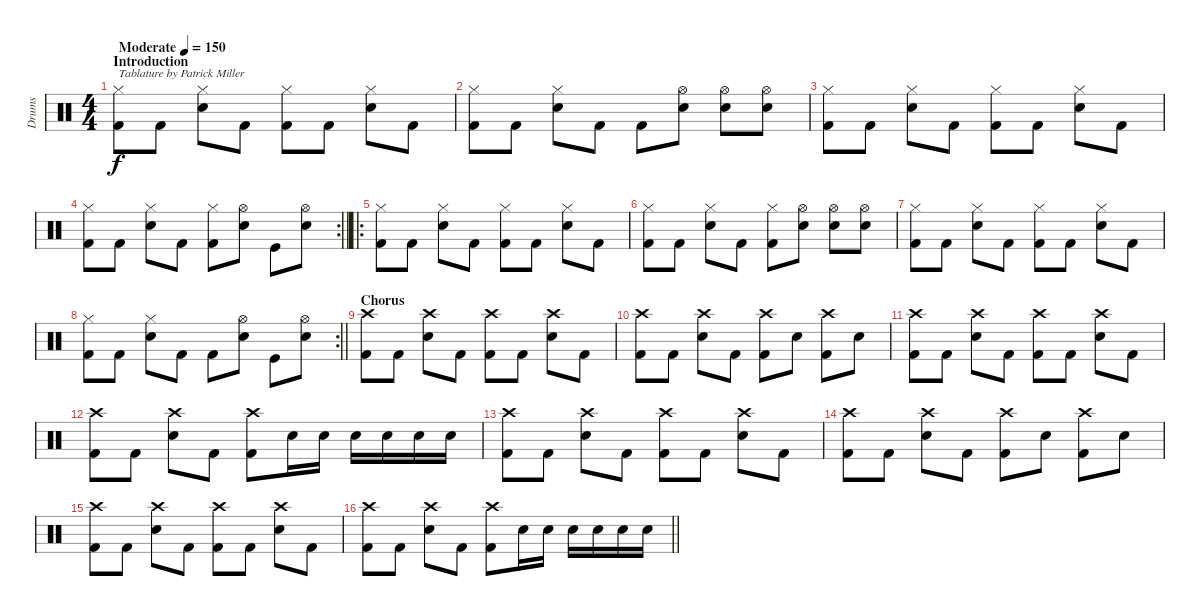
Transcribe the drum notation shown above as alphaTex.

\track ("Drums" "Drums") {instrument percussion}
\staff {score}
\articulation defaults
\ts (4 4)
\section ("" "Introduction")
\tempo (150 "Moderate")
\clef neutral
\ks c
("Kick (hit) 2" "Hi-Hat (closed)").8{txt "Tablature by Patrick Miller" dy f} "Kick (hit) 2".8 ("Snare (hit) 2" "Hi-Hat (closed)").8 "Kick (hit) 2".8 ("Kick (hit) 2" "Hi-Hat (closed)").8 "Kick (hit) 2".8 ("Snare (hit) 2" "Hi-Hat (closed)").8 "Kick (hit) 2".8 |
("Kick (hit) 2" "Hi-Hat (closed)").8 "Kick (hit) 2".8 ("Snare (hit) 2" "Hi-Hat (closed)").8 "Kick (hit) 2".8 "Kick (hit) 2".8 ("Hi-Hat (open)" "Snare (hit) 2").8 ("Hi-Hat (open)" "Snare (hit) 2").8 ("Hi-Hat (open)" "Snare (hit) 2").8 |
("Kick (hit) 2" "Hi-Hat (closed)").8 "Kick (hit) 2".8 ("Snare (hit) 2" "Hi-Hat (closed)").8 "Kick (hit) 2".8 ("Kick (hit) 2" "Hi-Hat (closed)").8 "Kick (hit) 2".8 ("Snare (hit) 2" "Hi-Hat (closed)").8 "Kick (hit) 2".8 |
\rc 2
\barLineRight lightlight
("Kick (hit) 2" "Hi-Hat (closed)").8 "Kick (hit) 2".8 ("Snare (hit) 2" "Hi-Hat (closed)").8 "Kick (hit) 2".8 ("Kick (hit) 2" "Hi-Hat (closed)").8 ("Hi-Hat (open)" "Snare (hit) 2").8 "Kick (hit)".8 ("Hi-Hat (open)" "Snare (hit) 2").8 |
\ro
\section ("" "")
("Kick (hit) 2" "Hi-Hat (closed)").8 "Kick (hit) 2".8 ("Snare (hit) 2" "Hi-Hat (closed)").8 "Kick (hit) 2".8 ("Kick (hit) 2" "Hi-Hat (closed)").8 "Kick (hit) 2".8 ("Snare (hit) 2" "Hi-Hat (closed)").8 "Kick (hit) 2".8 |
("Kick (hit) 2" "Hi-Hat (closed)").8 "Kick (hit) 2".8 ("Snare (hit) 2" "Hi-Hat (closed)").8 "Kick (hit) 2".8 ("Kick (hit) 2" "Hi-Hat (closed)").8 ("Hi-Hat (open)" "Snare (hit) 2").8 ("Hi-Hat (open)" "Snare (hit) 2").8 ("Hi-Hat (open)" "Snare (hit) 2").8 |
("Kick (hit) 2" "Hi-Hat (closed)").8 "Kick (hit) 2".8 ("Snare (hit) 2" "Hi-Hat (closed)").8 "Kick (hit) 2".8 ("Kick (hit) 2" "Hi-Hat (closed)").8 "Kick (hit) 2".8 ("Snare (hit) 2" "Hi-Hat (closed)").8 "Kick (hit) 2".8 |
\rc 2
\barLineRight lightlight
("Kick (hit) 2" "Hi-Hat (closed)").8 "Kick (hit) 2".8 ("Snare (hit) 2" "Hi-Hat (closed)").8 "Kick (hit) 2".8 "Kick (hit) 2".8 ("Hi-Hat (open)" "Snare (hit) 2").8 "Kick (hit)".8 ("Hi-Hat (open)" "Snare (hit) 2").8 |
\section ("" "Chorus")
("Kick (hit) 2" "Crash high (hit)").8 "Kick (hit) 2".8 ("Snare (hit) 2" "Crash high (hit)").8 "Kick (hit) 2".8 ("Kick (hit) 2" "Crash high (hit)").8 "Kick (hit) 2".8 ("Snare (hit) 2" "Crash high (hit)").8 "Kick (hit) 2".8 |
("Kick (hit) 2" "Crash high (hit)").8 "Kick (hit) 2".8 ("Snare (hit) 2" "Crash high (hit)").8 "Kick (hit) 2".8 ("Kick (hit) 2" "Crash high (hit)").8 "Snare (hit) 2".8 ("Kick (hit) 2" "Crash high (hit)").8 "Snare (hit) 2".8 |
("Kick (hit) 2" "Crash high (hit)").8 "Kick (hit) 2".8 ("Snare (hit) 2" "Crash high (hit)").8 "Kick (hit) 2".8 ("Kick (hit) 2" "Crash high (hit)").8 "Kick (hit) 2".8 ("Snare (hit) 2" "Crash high (hit)").8 "Kick (hit) 2".8 |
("Kick (hit) 2" "Crash high (hit)").8 "Kick (hit) 2".8 ("Snare (hit) 2" "Crash high (hit)").8 "Kick (hit) 2".8 ("Kick (hit) 2" "Crash high (hit)").8 "Snare (hit) 2".16 "Snare (hit) 2".16 "Snare (hit) 2".16 "Snare (hit) 2".16 "Snare (hit) 2".16 "Snare (hit) 2".16 |
("Kick (hit) 2" "Crash high (hit)").8 "Kick (hit) 2".8 ("Snare (hit) 2" "Crash high (hit)").8 "Kick (hit) 2".8 ("Kick (hit) 2" "Crash high (hit)").8 "Kick (hit) 2".8 ("Snare (hit) 2" "Crash high (hit)").8 "Kick (hit) 2".8 |
("Kick (hit) 2" "Crash high (hit)").8 "Kick (hit) 2".8 ("Snare (hit) 2" "Crash high (hit)").8 "Kick (hit) 2".8 ("Kick (hit) 2" "Crash high (hit)").8 "Snare (hit) 2".8 ("Kick (hit) 2" "Crash high (hit)").8 "Snare (hit) 2".8 |
("Kick (hit) 2" "Crash high (hit)").8 "Kick (hit) 2".8 ("Snare (hit) 2" "Crash high (hit)").8 "Kick (hit) 2".8 ("Kick (hit) 2" "Crash high (hit)").8 "Kick (hit) 2".8 ("Snare (hit) 2" "Crash high (hit)").8 "Kick (hit) 2".8 |
\barLineRight lightlight
("Kick (hit) 2" "Crash high (hit)").8 "Kick (hit) 2".8 ("Snare (hit) 2" "Crash high (hit)").8 "Kick (hit) 2".8 ("Kick (hit) 2" "Crash high (hit)").8 "Snare (hit) 2".16 "Snare (hit) 2".16 "Snare (hit) 2".16 "Snare (hit) 2".16 "Snare (hit) 2".16 "Snare (hit) 2".16
